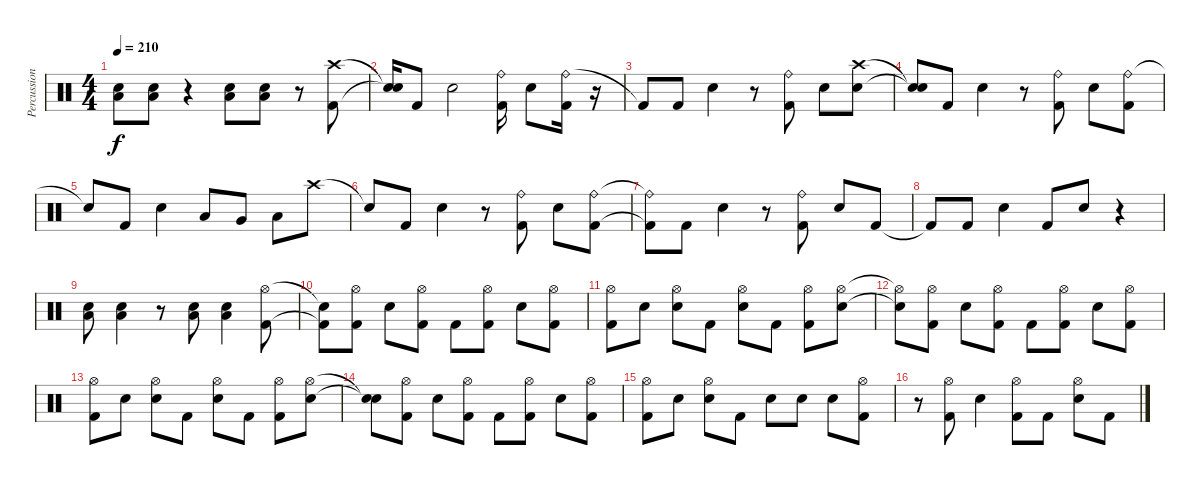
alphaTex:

\track ("Percussion" "Percussion") {instrument percussion}
\staff {score}
\articulation defaults
\ts (4 4)
\tempo 210
\clef neutral
\ks c
("Low Floor Tom (hit)" "Electric Snare (hit)").8{dy f} ("Low Floor Tom (hit)" "Electric Snare (hit)").8 r.4 ("Low Floor Tom (hit)" "Electric Snare (hit)").8 ("Low Floor Tom (hit)" "Electric Snare (hit)").8 r.8 ("Crash high (hit)" "Kick (hit) 2").8 |
("Snare (hit)"{t} "Snare (hit)"{t}).16 "Kick (hit) 2".8 "Electric Snare (hit)".2 ("Ride (bell)" "Kick (hit) 2").16 "Electric Snare (hit)".8 ("Ride (bell)" "Kick (hit) 2").16 r.16 |
"Kick (hit) 2"{t}.8 "Kick (hit) 2".8 "Electric Snare (hit)".4 r.8 ("Ride (bell)" "Kick (hit) 2").8 "Electric Snare (hit)".8 ("Crash high (hit)" "Electric Snare (hit)").8 |
("Snare (hit)"{t} "Electric Snare (hit)"{t}).8 "Kick (hit) 2".8 "Electric Snare (hit)".4 r.8 ("Ride (bell)" "Kick (hit) 2").8 "Electric Snare (hit)".8 ("Ride (bell)" "Kick (hit) 2").8 |
"Snare (hit)"{t}.8 "Kick (hit) 2".8 "Electric Snare (hit)".4 "Low Tom (hit)".8 "Very Low Tom (hit)".8 "Low Floor Tom (hit)".8 "Crash high (hit)".8 |
"Snare (hit)"{t}.8 "Kick (hit) 2".8 "Electric Snare (hit)".4 r.8 ("Ride (bell)" "Kick (hit) 2").8 "Electric Snare (hit)".8 ("Ride (bell)" "Kick (hit) 2").8 |
("Ride (bell)"{t} "Kick (hit) 2"{t}).8 "Kick (hit) 2".8 "Electric Snare (hit)".4 r.8 ("Ride (bell)" "Kick (hit) 2").8 "Electric Snare (hit)".8 "Kick (hit) 2".8 |
"Kick (hit) 2"{t}.8 "Kick (hit) 2".8 "Electric Snare (hit)".4 "Kick (hit) 2".8 "Electric Snare (hit)".8 r.4 |
("Low Floor Tom (hit)" "Electric Snare (hit)").8 ("Low Floor Tom (hit)" "Electric Snare (hit)").4 r.8 ("Low Floor Tom (hit)" "Electric Snare (hit)").8 ("Low Floor Tom (hit)" "Electric Snare (hit)").4 ("Hi-Hat (open)" "Kick (hit) 2").8 |
("Snare (hit)"{t} "Kick (hit) 2"{t}).8 ("Hi-Hat (open)" "Kick (hit) 2").8 "Electric Snare (hit)".8 ("Hi-Hat (open)" "Kick (hit) 2").8 "Kick (hit) 2".8 ("Hi-Hat (open)" "Kick (hit) 2").8 "Electric Snare (hit)".8 ("Hi-Hat (open)" "Kick (hit) 2").8 |
("Hi-Hat (open)" "Kick (hit) 2").8 "Electric Snare (hit)".8 ("Hi-Hat (open)" "Electric Snare (hit)").8 "Kick (hit) 2".8 ("Hi-Hat (open)" "Electric Snare (hit)").8 "Kick (hit) 2".8 ("Hi-Hat (open)" "Kick (hit) 2").8 ("Hi-Hat (open)" "Electric Snare (hit)").8 |
("Hi-Hat (open)"{t} "Electric Snare (hit)"{t}).8 ("Hi-Hat (open)" "Kick (hit) 2").8 "Electric Snare (hit)".8 ("Hi-Hat (open)" "Kick (hit) 2").8 "Kick (hit) 2".8 ("Hi-Hat (open)" "Kick (hit) 2").8 "Electric Snare (hit)".8 ("Hi-Hat (open)" "Kick (hit) 2").8 |
("Hi-Hat (open)" "Kick (hit) 2").8 "Electric Snare (hit)".8 ("Hi-Hat (open)" "Electric Snare (hit)").8 "Kick (hit) 2".8 ("Hi-Hat (open)" "Electric Snare (hit)").8 "Kick (hit) 2".8 ("Hi-Hat (open)" "Kick (hit) 2").8 ("Hi-Hat (open)" "Electric Snare (hit)").8 |
("Snare (hit)"{t} "Snare (hit)"{t}).8 ("Hi-Hat (open)" "Kick (hit) 2").8 "Electric Snare (hit)".8 ("Hi-Hat (open)" "Kick (hit) 2").8 "Kick (hit) 2".8 ("Hi-Hat (open)" "Kick (hit) 2").8 "Electric Snare (hit)".8 ("Hi-Hat (open)" "Kick (hit) 2").8 |
("Hi-Hat (open)" "Kick (hit) 2").8 "Electric Snare (hit)".8 ("Hi-Hat (open)" "Electric Snare (hit)").8 "Kick (hit) 2".8 "Electric Snare (hit)".8 "Electric Snare (hit)".8 "Electric Snare (hit)".8 ("Hi-Hat (open)" "Kick (hit) 2").8 |
r.8 ("Hi-Hat (open)" "Kick (hit) 2").8 "Electric Snare (hit)".4 ("Hi-Hat (open)" "Kick (hit) 2").8 "Kick (hit) 2".8 ("Hi-Hat (open)" "Electric Snare (hit)").8 "Kick (hit) 2".8
